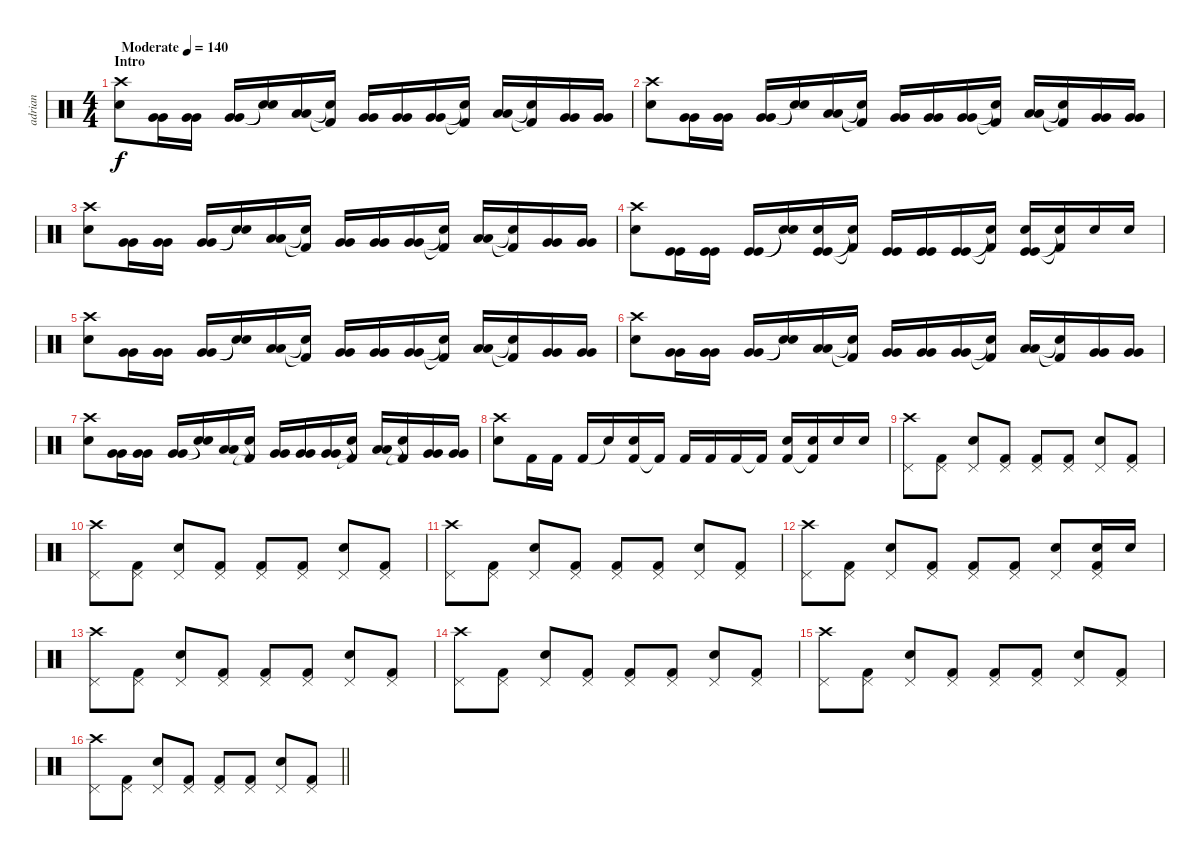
\track ("adrian" "adrian") {instrument percussion}
\staff {score}
\articulation defaults
\ts (4 4)
\section ("" "Intro")
\tempo (140 "Moderate")
\clef neutral
\ks c
("Electric Snare (hit)" "Crash high (hit)").8{dy f} ("Very Low Tom (hit)" "Very Low Tom (hit)").16 ("Very Low Tom (hit)" "Very Low Tom (hit)").16 ("Very Low Tom (hit)" "Very Low Tom (hit)").16 ("Snare (hit)"{t} "Snare (hit)"{t}).16 ("Low Tom (hit)" "Low Tom (hit)").16 ("Kick (hit) 2"{t} "Snare (hit)"{t}).16 ("Very Low Tom (hit)" "Very Low Tom (hit)").16 ("Very Low Tom (hit)" "Very Low Tom (hit)").16 ("Very Low Tom (hit)" "Very Low Tom (hit)").16 ("Kick (hit) 2"{t} "Snare (hit)"{t}).16 ("Low Tom (hit)" "Low Tom (hit)").16 ("Kick (hit) 2"{t} "Snare (hit)"{t}).16 ("Very Low Tom (hit)" "Very Low Tom (hit)").16 ("Very Low Tom (hit)" "Very Low Tom (hit)").16 |
("Electric Snare (hit)" "Crash high (hit)").8 ("Very Low Tom (hit)" "Very Low Tom (hit)").16 ("Very Low Tom (hit)" "Very Low Tom (hit)").16 ("Very Low Tom (hit)" "Very Low Tom (hit)").16 ("Snare (hit)"{t} "Snare (hit)"{t}).16 ("Low Tom (hit)" "Low Tom (hit)").16 ("Kick (hit) 2"{t} "Snare (hit)"{t}).16 ("Very Low Tom (hit)" "Very Low Tom (hit)").16 ("Very Low Tom (hit)" "Very Low Tom (hit)").16 ("Very Low Tom (hit)" "Very Low Tom (hit)").16 ("Kick (hit) 2"{t} "Snare (hit)"{t}).16 ("Low Tom (hit)" "Low Tom (hit)").16 ("Kick (hit) 2"{t} "Snare (hit)"{t}).16 ("Very Low Tom (hit)" "Very Low Tom (hit)").16 ("Very Low Tom (hit)" "Very Low Tom (hit)").16 |
("Electric Snare (hit)" "Crash high (hit)").8 ("Very Low Tom (hit)" "Very Low Tom (hit)").16 ("Very Low Tom (hit)" "Very Low Tom (hit)").16 ("Very Low Tom (hit)" "Very Low Tom (hit)").16 ("Snare (hit)"{t} "Snare (hit)"{t}).16 ("Low Tom (hit)" "Low Tom (hit)").16 ("Kick (hit) 2"{t} "Snare (hit)"{t}).16 ("Very Low Tom (hit)" "Very Low Tom (hit)").16 ("Very Low Tom (hit)" "Very Low Tom (hit)").16 ("Very Low Tom (hit)" "Very Low Tom (hit)").16 ("Kick (hit) 2"{t} "Snare (hit)"{t}).16 ("Low Tom (hit)" "Low Tom (hit)").16 ("Kick (hit) 2"{t} "Snare (hit)"{t}).16 ("Very Low Tom (hit)" "Very Low Tom (hit)").16 ("Very Low Tom (hit)" "Very Low Tom (hit)").16 |
("Electric Snare (hit)" "Crash high (hit)").8 ("Kick (hit)" "Kick (hit)").16 ("Kick (hit)" "Kick (hit)").16 ("Kick (hit)" "Kick (hit)").16 ("Snare (hit)"{t} "Snare (hit)"{t}).16 ("Kick (hit)" "Kick (hit)" "Electric Snare (hit)").16 ("Kick (hit) 2"{t} "Snare (hit)"{t}).16 ("Kick (hit)" "Kick (hit)").16 ("Kick (hit)" "Kick (hit)").16 ("Kick (hit)" "Kick (hit)").16 ("Kick (hit) 2"{t} "Snare (hit)"{t}).16 ("Kick (hit)" "Kick (hit)" "Electric Snare (hit)").16 ("Kick (hit) 2"{t} "Snare (hit)"{t}).16 "Electric Snare (hit)".16 "Electric Snare (hit)".16 |
("Electric Snare (hit)" "Crash high (hit)").8 ("Very Low Tom (hit)" "Very Low Tom (hit)").16 ("Very Low Tom (hit)" "Very Low Tom (hit)").16 ("Very Low Tom (hit)" "Very Low Tom (hit)").16 ("Snare (hit)"{t} "Snare (hit)"{t}).16 ("Low Tom (hit)" "Low Tom (hit)").16 ("Kick (hit) 2"{t} "Snare (hit)"{t}).16 ("Very Low Tom (hit)" "Very Low Tom (hit)").16 ("Very Low Tom (hit)" "Very Low Tom (hit)").16 ("Very Low Tom (hit)" "Very Low Tom (hit)").16 ("Kick (hit) 2"{t} "Snare (hit)"{t}).16 ("Low Tom (hit)" "Low Tom (hit)").16 ("Kick (hit) 2"{t} "Snare (hit)"{t}).16 ("Very Low Tom (hit)" "Very Low Tom (hit)").16 ("Very Low Tom (hit)" "Very Low Tom (hit)").16 |
("Electric Snare (hit)" "Crash high (hit)").8 ("Very Low Tom (hit)" "Very Low Tom (hit)").16 ("Very Low Tom (hit)" "Very Low Tom (hit)").16 ("Very Low Tom (hit)" "Very Low Tom (hit)").16 ("Snare (hit)"{t} "Snare (hit)"{t}).16 ("Low Tom (hit)" "Low Tom (hit)").16 ("Kick (hit) 2"{t} "Snare (hit)"{t}).16 ("Very Low Tom (hit)" "Very Low Tom (hit)").16 ("Very Low Tom (hit)" "Very Low Tom (hit)").16 ("Very Low Tom (hit)" "Very Low Tom (hit)").16 ("Kick (hit) 2"{t} "Snare (hit)"{t}).16 ("Low Tom (hit)" "Low Tom (hit)").16 ("Kick (hit) 2"{t} "Snare (hit)"{t}).16 ("Very Low Tom (hit)" "Very Low Tom (hit)").16 ("Very Low Tom (hit)" "Very Low Tom (hit)").16 |
("Electric Snare (hit)" "Crash high (hit)").8 ("Very Low Tom (hit)" "Very Low Tom (hit)").16 ("Very Low Tom (hit)" "Very Low Tom (hit)").16 ("Very Low Tom (hit)" "Very Low Tom (hit)").16 ("Snare (hit)"{t} "Snare (hit)"{t}).16 ("Low Tom (hit)" "Low Tom (hit)").16 ("Kick (hit) 2"{t} "Snare (hit)"{t}).16 ("Very Low Tom (hit)" "Very Low Tom (hit)").16 ("Very Low Tom (hit)" "Very Low Tom (hit)").16 ("Very Low Tom (hit)" "Very Low Tom (hit)").16 ("Kick (hit) 2"{t} "Snare (hit)"{t}).16 ("Low Tom (hit)" "Low Tom (hit)").16 ("Kick (hit) 2"{t} "Snare (hit)"{t}).16 ("Very Low Tom (hit)" "Very Low Tom (hit)").16 ("Very Low Tom (hit)" "Very Low Tom (hit)").16 |
("Electric Snare (hit)" "Crash high (hit)").8 "Kick (hit) 2".16 "Kick (hit) 2".16 "Kick (hit) 2".16 "Snare (hit)"{t}.16 ("Kick (hit) 2" "Electric Snare (hit)").16 "Kick (hit) 2"{t}.16 "Kick (hit) 2".16 "Kick (hit) 2".16 "Kick (hit) 2".16 "Kick (hit) 2"{t}.16 ("Kick (hit) 2" "Electric Snare (hit)").16 ("Kick (hit) 2"{t} "Electric Snare (hit)").16 "Snare (hit) 2".16 "Snare (hit) 2".16 |
("Crash high (hit)" "Pedal Hi-Hat (hit)").8 ("Kick (hit) 2" "Pedal Hi-Hat (hit)").8 ("Electric Snare (hit)" "Pedal Hi-Hat (hit)").8 ("Kick (hit) 2" "Pedal Hi-Hat (hit)").8 ("Kick (hit) 2" "Pedal Hi-Hat (hit)").8 ("Kick (hit) 2" "Pedal Hi-Hat (hit)").8 ("Electric Snare (hit)" "Pedal Hi-Hat (hit)").8 ("Kick (hit) 2" "Pedal Hi-Hat (hit)").8 |
("Crash high (hit)" "Pedal Hi-Hat (hit)").8 ("Kick (hit) 2" "Pedal Hi-Hat (hit)").8 ("Electric Snare (hit)" "Pedal Hi-Hat (hit)").8 ("Kick (hit) 2" "Pedal Hi-Hat (hit)").8 ("Kick (hit) 2" "Pedal Hi-Hat (hit)").8 ("Kick (hit) 2" "Pedal Hi-Hat (hit)").8 ("Electric Snare (hit)" "Pedal Hi-Hat (hit)").8 ("Kick (hit) 2" "Pedal Hi-Hat (hit)").8 |
("Crash high (hit)" "Pedal Hi-Hat (hit)").8 ("Kick (hit) 2" "Pedal Hi-Hat (hit)").8 ("Electric Snare (hit)" "Pedal Hi-Hat (hit)").8 ("Kick (hit) 2" "Pedal Hi-Hat (hit)").8 ("Kick (hit) 2" "Pedal Hi-Hat (hit)").8 ("Kick (hit) 2" "Pedal Hi-Hat (hit)").8 ("Electric Snare (hit)" "Pedal Hi-Hat (hit)").8 ("Kick (hit) 2" "Pedal Hi-Hat (hit)").8 |
("Crash high (hit)" "Pedal Hi-Hat (hit)").8 ("Kick (hit) 2" "Pedal Hi-Hat (hit)").8 ("Electric Snare (hit)" "Pedal Hi-Hat (hit)").8 ("Kick (hit) 2" "Pedal Hi-Hat (hit)").8 ("Kick (hit) 2" "Pedal Hi-Hat (hit)").8 ("Kick (hit) 2" "Pedal Hi-Hat (hit)").8 ("Electric Snare (hit)" "Pedal Hi-Hat (hit)").8 ("Kick (hit) 2" "Electric Snare (hit)" "Pedal Hi-Hat (hit)").16 "Electric Snare (hit)".16 |
("Crash high (hit)" "Pedal Hi-Hat (hit)").8 ("Kick (hit) 2" "Pedal Hi-Hat (hit)").8 ("Electric Snare (hit)" "Pedal Hi-Hat (hit)").8 ("Kick (hit) 2" "Pedal Hi-Hat (hit)").8 ("Kick (hit) 2" "Pedal Hi-Hat (hit)").8 ("Kick (hit) 2" "Pedal Hi-Hat (hit)").8 ("Electric Snare (hit)" "Pedal Hi-Hat (hit)").8 ("Kick (hit) 2" "Pedal Hi-Hat (hit)").8 |
("Crash high (hit)" "Pedal Hi-Hat (hit)").8 ("Kick (hit) 2" "Pedal Hi-Hat (hit)").8 ("Electric Snare (hit)" "Pedal Hi-Hat (hit)").8 ("Kick (hit) 2" "Pedal Hi-Hat (hit)").8 ("Kick (hit) 2" "Pedal Hi-Hat (hit)").8 ("Kick (hit) 2" "Pedal Hi-Hat (hit)").8 ("Electric Snare (hit)" "Pedal Hi-Hat (hit)").8 ("Kick (hit) 2" "Pedal Hi-Hat (hit)").8 |
("Crash high (hit)" "Pedal Hi-Hat (hit)").8 ("Kick (hit) 2" "Pedal Hi-Hat (hit)").8 ("Electric Snare (hit)" "Pedal Hi-Hat (hit)").8 ("Kick (hit) 2" "Pedal Hi-Hat (hit)").8 ("Kick (hit) 2" "Pedal Hi-Hat (hit)").8 ("Kick (hit) 2" "Pedal Hi-Hat (hit)").8 ("Electric Snare (hit)" "Pedal Hi-Hat (hit)").8 ("Kick (hit) 2" "Pedal Hi-Hat (hit)").8 |
\barLineRight lightlight
("Crash high (hit)" "Pedal Hi-Hat (hit)").8 ("Kick (hit) 2" "Pedal Hi-Hat (hit)").8 ("Electric Snare (hit)" "Pedal Hi-Hat (hit)").8 ("Kick (hit) 2" "Pedal Hi-Hat (hit)").8 ("Kick (hit) 2" "Pedal Hi-Hat (hit)").8 ("Kick (hit) 2" "Pedal Hi-Hat (hit)").8 ("Electric Snare (hit)" "Pedal Hi-Hat (hit)").8 ("Kick (hit) 2" "Pedal Hi-Hat (hit)").8
